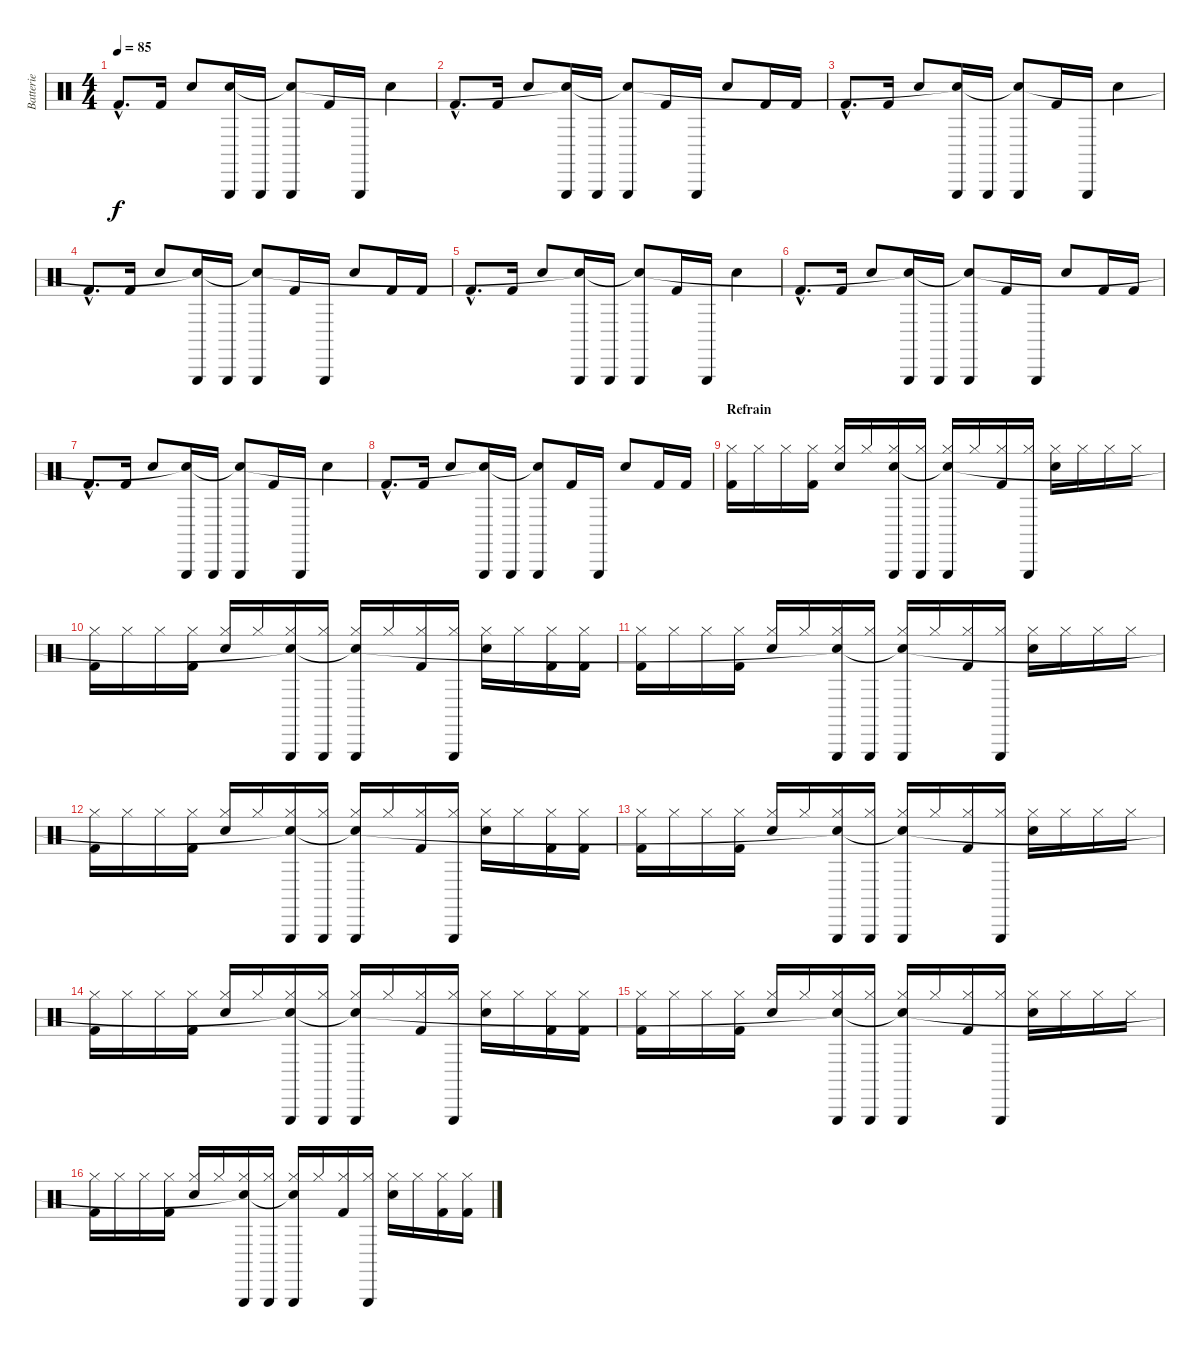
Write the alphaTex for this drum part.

\track ("Batterie" "Batterie") {instrument percussion}
\staff {score}
\articulation defaults
\ts (4 4)
\tempo 85
\clef neutral
\ks c "Kick (hit) 2"{hac}.8{d dy f} "Kick (hit) 2".16 "Hand Clap (hit)".8
("Triangle (hit)" "Snare (hit)"{t}).16 "Triangle (hit)".16 ("Triangle (hit)" "Snare (hit)"{t}).8 "Kick (hit) 2".16 "Triangle (hit)".16 "Hand Clap (hit)".4 |
"Kick (hit) 2"{hac}.8{d} "Kick (hit) 2".16 "Hand Clap (hit)".8 ("Triangle (hit)" "Snare (hit)"{t}).16 "Triangle (hit)".16 ("Triangle (hit)" "Snare (hit)"{t}).8 "Kick (hit) 2".16 "Triangle (hit)".16 "Hand Clap (hit)".8 "Kick (hit) 2".16 "Kick (hit) 2".16 |
"Kick (hit) 2"{hac}.8{d} "Kick (hit) 2".16 "Hand Clap (hit)".8 ("Triangle (hit)" "Snare (hit)"{t}).16 "Triangle (hit)".16 ("Triangle (hit)" "Snare (hit)"{t}).8 "Kick (hit) 2".16 "Triangle (hit)".16 "Hand Clap (hit)".4 |
"Kick (hit) 2"{hac}.8{d} "Kick (hit) 2".16 "Hand Clap (hit)".8 ("Triangle (hit)" "Snare (hit)"{t}).16 "Triangle (hit)".16 ("Triangle (hit)" "Snare (hit)"{t}).8 "Kick (hit) 2".16 "Triangle (hit)".16 "Hand Clap (hit)".8 "Kick (hit) 2".16 "Kick (hit) 2".16 |
"Kick (hit) 2"{hac}.8{d} "Kick (hit) 2".16 "Hand Clap (hit)".8 ("Triangle (hit)" "Snare (hit)"{t}).16 "Triangle (hit)".16 ("Triangle (hit)" "Snare (hit)"{t}).8 "Kick (hit) 2".16 "Triangle (hit)".16 "Hand Clap (hit)".4 |
"Kick (hit) 2"{hac}.8{d} "Kick (hit) 2".16 "Hand Clap (hit)".8 ("Triangle (hit)" "Snare (hit)"{t}).16 "Triangle (hit)".16 ("Triangle (hit)" "Snare (hit)"{t}).8 "Kick (hit) 2".16 "Triangle (hit)".16 "Hand Clap (hit)".8 "Kick (hit) 2".16 "Kick (hit) 2".16 |
"Kick (hit) 2"{hac}.8{d} "Kick (hit) 2".16 "Hand Clap (hit)".8 ("Triangle (hit)" "Snare (hit)"{t}).16 "Triangle (hit)".16 ("Triangle (hit)" "Snare (hit)"{t}).8 "Kick (hit) 2".16 "Triangle (hit)".16 "Hand Clap (hit)".4 |
"Kick (hit) 2"{hac}.8{d} "Kick (hit) 2".16 "Hand Clap (hit)".8 ("Triangle (hit)" "Snare (hit)"{t}).16 "Triangle (hit)".16 ("Triangle (hit)" "Snare (hit)"{t}).8 "Kick (hit) 2".16 "Triangle (hit)".16 "Hand Clap (hit)".8 "Kick (hit) 2".16 "Kick (hit) 2".16 |
\section ("" "Refrain")
("Hi-Hat (closed)" "Kick (hit) 2").16 "Hi-Hat (closed)".16 "Hi-Hat (closed)".16 ("Hi-Hat (closed)" "Kick (hit) 2").16 ("Hi-Hat (closed)" "Hand Clap (hit)").16 "Hi-Hat (closed)".16 ("Hi-Hat (closed)" "Triangle (hit)" "Snare (hit)").16 ("Hi-Hat (closed)" "Triangle (hit)").16 ("Hi-Hat (closed)" "Triangle (hit)" "Snare (hit)"{t}).16 "Hi-Hat (closed)".16 ("Hi-Hat (closed)" "Kick (hit) 2").16 ("Hi-Hat (closed)" "Triangle (hit)").16 ("Hi-Hat (closed)" "Hand Clap (hit)").16 "Hi-Hat (closed)".16 "Hi-Hat (closed)".16 "Hi-Hat (closed)".16 |
("Hi-Hat (closed)" "Kick (hit) 2").16 "Hi-Hat (closed)".16 "Hi-Hat (closed)".16 ("Hi-Hat (closed)" "Kick (hit) 2").16 ("Hi-Hat (closed)" "Hand Clap (hit)").16 "Hi-Hat (closed)".16 ("Hi-Hat (closed)" "Triangle (hit)" "Snare (hit)"{t}).16 ("Hi-Hat (closed)" "Triangle (hit)").16 ("Hi-Hat (closed)" "Triangle (hit)" "Snare (hit)"{t}).16 "Hi-Hat (closed)".16 ("Hi-Hat (closed)" "Kick (hit) 2").16 ("Hi-Hat (closed)" "Triangle (hit)").16 ("Hi-Hat (closed)" "Hand Clap (hit)").16 "Hi-Hat (closed)".16 ("Hi-Hat (closed)" "Kick (hit) 2").16 ("Hi-Hat (closed)" "Kick (hit) 2").16 |
("Hi-Hat (closed)" "Kick (hit) 2").16 "Hi-Hat (closed)".16 "Hi-Hat (closed)".16 ("Hi-Hat (closed)" "Kick (hit) 2").16 ("Hi-Hat (closed)" "Hand Clap (hit)").16 "Hi-Hat (closed)".16 ("Hi-Hat (closed)" "Triangle (hit)" "Snare (hit)"{t}).16 ("Hi-Hat (closed)" "Triangle (hit)").16 ("Hi-Hat (closed)" "Triangle (hit)" "Snare (hit)"{t}).16 "Hi-Hat (closed)".16 ("Hi-Hat (closed)" "Kick (hit) 2").16 ("Hi-Hat (closed)" "Triangle (hit)").16 ("Hi-Hat (closed)" "Hand Clap (hit)").16 "Hi-Hat (closed)".16 "Hi-Hat (closed)".16 "Hi-Hat (closed)".16 |
("Hi-Hat (closed)" "Kick (hit) 2").16 "Hi-Hat (closed)".16 "Hi-Hat (closed)".16 ("Hi-Hat (closed)" "Kick (hit) 2").16 ("Hi-Hat (closed)" "Hand Clap (hit)").16 "Hi-Hat (closed)".16 ("Hi-Hat (closed)" "Triangle (hit)" "Snare (hit)"{t}).16 ("Hi-Hat (closed)" "Triangle (hit)").16 ("Hi-Hat (closed)" "Triangle (hit)" "Snare (hit)"{t}).16 "Hi-Hat (closed)".16 ("Hi-Hat (closed)" "Kick (hit) 2").16 ("Hi-Hat (closed)" "Triangle (hit)").16 ("Hi-Hat (closed)" "Hand Clap (hit)").16 "Hi-Hat (closed)".16 ("Hi-Hat (closed)" "Kick (hit) 2").16 ("Hi-Hat (closed)" "Kick (hit) 2").16 |
("Hi-Hat (closed)" "Kick (hit) 2").16 "Hi-Hat (closed)".16 "Hi-Hat (closed)".16 ("Hi-Hat (closed)" "Kick (hit) 2").16 ("Hi-Hat (closed)" "Hand Clap (hit)").16 "Hi-Hat (closed)".16 ("Hi-Hat (closed)" "Triangle (hit)" "Snare (hit)"{t}).16 ("Hi-Hat (closed)" "Triangle (hit)").16 ("Hi-Hat (closed)" "Triangle (hit)" "Snare (hit)"{t}).16 "Hi-Hat (closed)".16 ("Hi-Hat (closed)" "Kick (hit) 2").16 ("Hi-Hat (closed)" "Triangle (hit)").16 ("Hi-Hat (closed)" "Hand Clap (hit)").16 "Hi-Hat (closed)".16 "Hi-Hat (closed)".16 "Hi-Hat (closed)".16 |
("Hi-Hat (closed)" "Kick (hit) 2").16 "Hi-Hat (closed)".16 "Hi-Hat (closed)".16 ("Hi-Hat (closed)" "Kick (hit) 2").16 ("Hi-Hat (closed)" "Hand Clap (hit)").16 "Hi-Hat (closed)".16 ("Hi-Hat (closed)" "Triangle (hit)" "Snare (hit)"{t}).16 ("Hi-Hat (closed)" "Triangle (hit)").16 ("Hi-Hat (closed)" "Triangle (hit)" "Snare (hit)"{t}).16 "Hi-Hat (closed)".16 ("Hi-Hat (closed)" "Kick (hit) 2").16 ("Hi-Hat (closed)" "Triangle (hit)").16 ("Hi-Hat (closed)" "Hand Clap (hit)").16 "Hi-Hat (closed)".16 ("Hi-Hat (closed)" "Kick (hit) 2").16 ("Hi-Hat (closed)" "Kick (hit) 2").16 |
("Hi-Hat (closed)" "Kick (hit) 2").16 "Hi-Hat (closed)".16 "Hi-Hat (closed)".16 ("Hi-Hat (closed)" "Kick (hit) 2").16 ("Hi-Hat (closed)" "Hand Clap (hit)").16 "Hi-Hat (closed)".16 ("Hi-Hat (closed)" "Triangle (hit)" "Snare (hit)"{t}).16 ("Hi-Hat (closed)" "Triangle (hit)").16 ("Hi-Hat (closed)" "Triangle (hit)" "Snare (hit)"{t}).16 "Hi-Hat (closed)".16 ("Hi-Hat (closed)" "Kick (hit) 2").16 ("Hi-Hat (closed)" "Triangle (hit)").16 ("Hi-Hat (closed)" "Hand Clap (hit)").16 "Hi-Hat (closed)".16 "Hi-Hat (closed)".16 "Hi-Hat (closed)".16 |
("Hi-Hat (closed)" "Kick (hit) 2").16 "Hi-Hat (closed)".16 "Hi-Hat (closed)".16 ("Hi-Hat (closed)" "Kick (hit) 2").16 ("Hi-Hat (closed)" "Hand Clap (hit)").16 "Hi-Hat (closed)".16 ("Hi-Hat (closed)" "Triangle (hit)" "Snare (hit)"{t}).16 ("Hi-Hat (closed)" "Triangle (hit)").16 ("Hi-Hat (closed)" "Triangle (hit)" "Snare (hit)"{t}).16 "Hi-Hat (closed)".16 ("Hi-Hat (closed)" "Kick (hit) 2").16 ("Hi-Hat (closed)" "Triangle (hit)").16 ("Hi-Hat (closed)" "Hand Clap (hit)").16 "Hi-Hat (closed)".16 ("Hi-Hat (closed)" "Kick (hit) 2").16 ("Hi-Hat (closed)" "Kick (hit) 2").16
